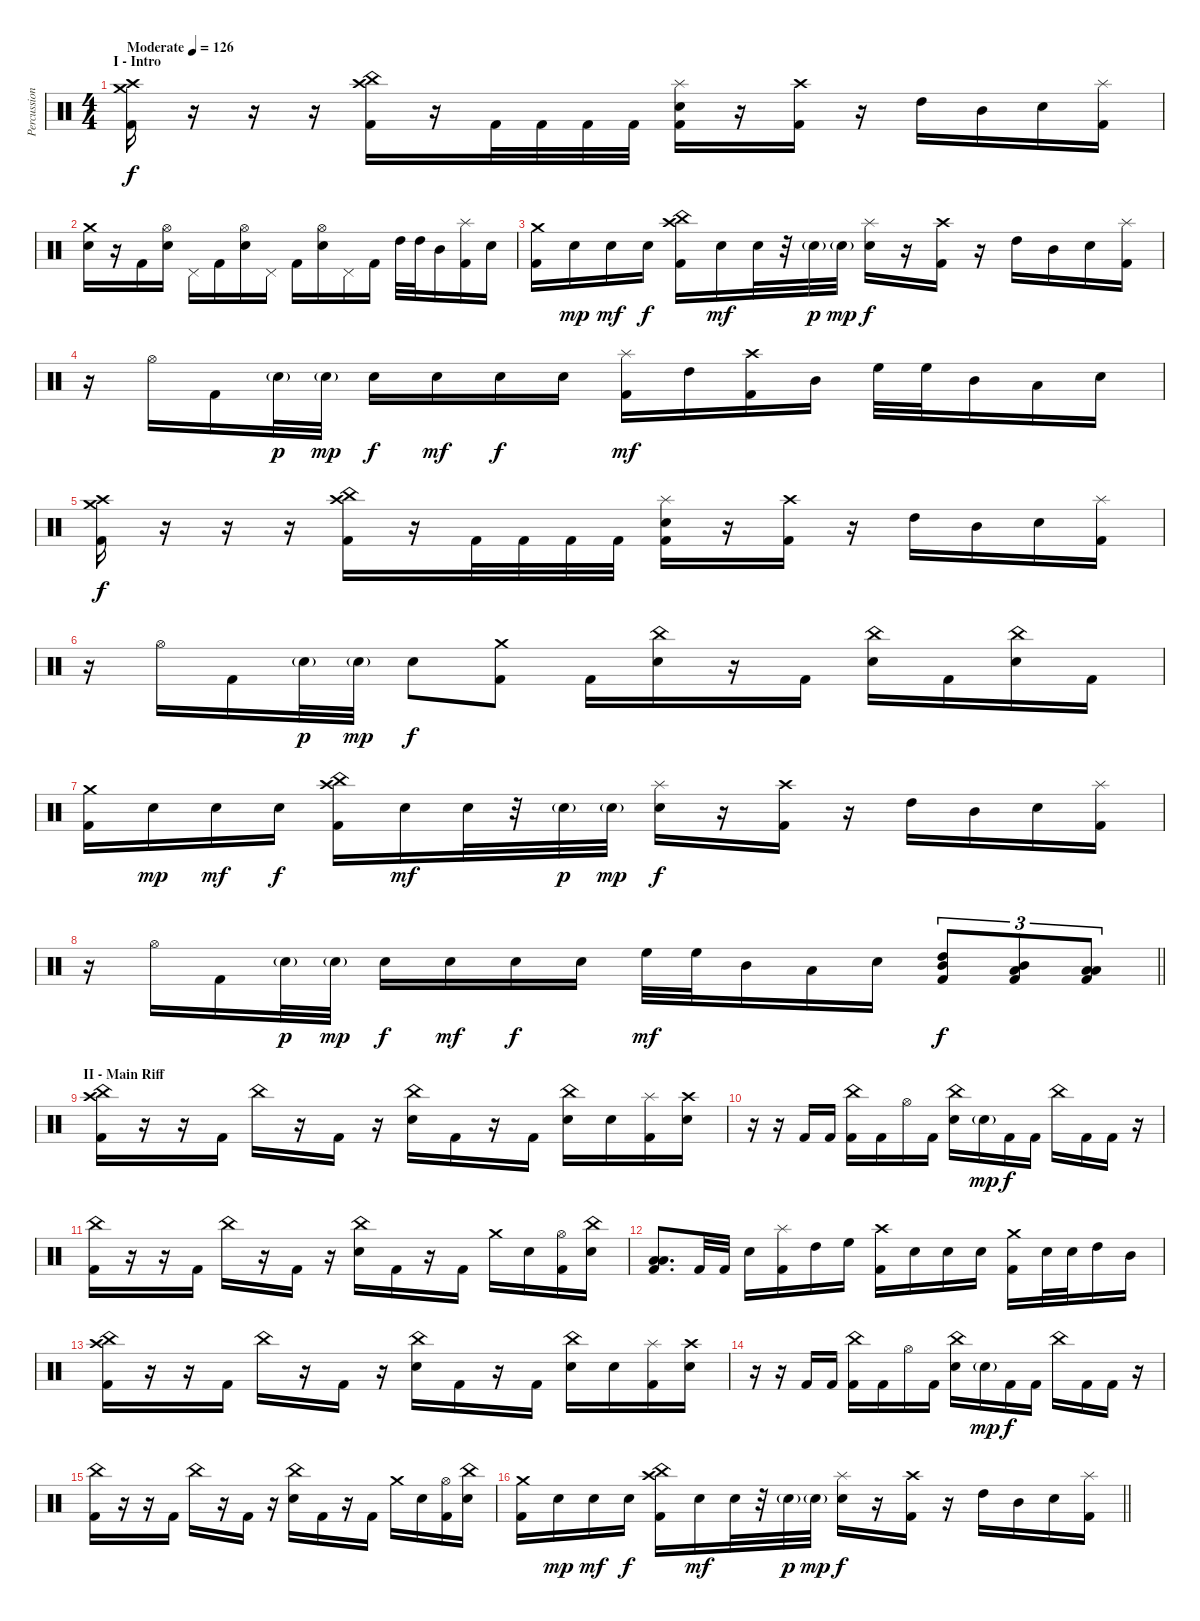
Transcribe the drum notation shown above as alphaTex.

\track ("Percussion" "Percussion") {instrument percussion}
\staff {score}
\articulation defaults
\ts (4 4)
\section ("" "I - Intro")
\tempo (126 "Moderate")
\clef neutral
\ks c
("Crash medium (hit)" "Crash high (hit)" "Kick (hit) 2").16{dy f} r.16 r.16 r.16 ("China (hit)" "Crash high (hit)" "Kick (hit) 2").16 r.16 "Kick (hit) 2".32 "Kick (hit) 2".32 "Kick (hit) 2".32 "Kick (hit) 2".32 ("Splash (hit)" "Snare (hit) 2" "Kick (hit) 2").16 r.16 ("Crash high (hit)" "Kick (hit) 2").16 r.16 "High Tom (hit)".16 "Mid Tom (hit)".16 "Snare (hit) 2".16 ("Splash (hit)" "Kick (hit) 2").16 |
("Crash medium (hit)" "Electric Snare (hit)").16 r.16 "Kick (hit) 2".16 ("Hi-Hat (open)" "Electric Snare (hit)").16 "Pedal Hi-Hat (hit)".16 "Kick (hit) 2".16 ("Hi-Hat (open)" "Electric Snare (hit)").16 "Pedal Hi-Hat (hit)".16 "Kick (hit) 2".16 ("Hi-Hat (open)" "Electric Snare (hit)").16 "Pedal Hi-Hat (hit)".16 "Kick (hit) 2".16 "High Tom (hit)".32 "High Tom (hit)".32 "Mid Tom (hit)".16 ("Splash (hit)" "Kick (hit) 2").16 "Electric Snare (hit)".16 |
("Crash medium (hit)" "Kick (hit) 2").16 "Snare (hit) 2".16{dy mp} "Snare (hit) 2".16{dy mf} "Snare (hit) 2".16{dy f} ("China (hit)" "Crash high (hit)" "Kick (hit) 2").16 "Snare (hit) 2".16{dy mf} "Snare (hit) 2".32 r.32 "Snare (hit) 2"{g}.32{dy p} "Snare (hit) 2"{g}.32{dy mp} ("Splash (hit)" "Snare (hit) 2").16{dy f} r.16 ("Crash high (hit)" "Kick (hit) 2").16 r.16 "High Tom (hit)".16 "Mid Tom (hit)".16 "Snare (hit) 2".16 ("Splash (hit)" "Kick (hit) 2").16 |
r.16 "Hi-Hat (open)".16 "Kick (hit) 2".16 "Snare (hit) 2"{g}.32{dy p} "Snare (hit) 2"{g}.32{dy mp} "Snare (hit) 2".16{dy f} "Snare (hit) 2".16{dy mf} "Snare (hit) 2".16{dy f} "Snare (hit) 2".16 ("Splash (hit)" "Kick (hit) 2").16{dy mf} "High Tom (hit)".16 ("Crash high (hit)" "Kick (hit) 2").16 "Mid Tom (hit)".16 "High Floor Tom (hit)".32 "High Floor Tom (hit)".32 "Mid Tom (hit)".16 "Low Tom (hit)".16 "Snare (hit) 2".16 |
("Crash medium (hit)" "Crash high (hit)" "Kick (hit) 2").16{dy f} r.16 r.16 r.16 ("China (hit)" "Crash high (hit)" "Kick (hit) 2").16 r.16 "Kick (hit) 2".32 "Kick (hit) 2".32 "Kick (hit) 2".32 "Kick (hit) 2".32 ("Splash (hit)" "Snare (hit) 2" "Kick (hit) 2").16 r.16 ("Crash high (hit)" "Kick (hit) 2").16 r.16 "High Tom (hit)".16 "Mid Tom (hit)".16 "Snare (hit) 2".16 ("Splash (hit)" "Kick (hit) 2").16 |
r.16 "Hi-Hat (open)".16 "Kick (hit) 2".16 "Snare (hit) 2"{g}.32{dy p} "Snare (hit) 2"{g}.32{dy mp} "Snare (hit) 2".8{dy f} ("Crash medium (hit)" "Kick (hit) 2").8 "Kick (hit) 2".16 ("China (hit)" "Snare (hit) 2").16 r.16 "Kick (hit) 2".16 ("China (hit)" "Snare (hit) 2").16 "Kick (hit) 2".16 ("China (hit)" "Snare (hit) 2").16 "Kick (hit) 2".16 |
("Crash medium (hit)" "Kick (hit) 2").16 "Snare (hit) 2".16{dy mp} "Snare (hit) 2".16{dy mf} "Snare (hit) 2".16{dy f} ("China (hit)" "Crash high (hit)" "Kick (hit) 2").16 "Snare (hit) 2".16{dy mf} "Snare (hit) 2".32 r.32 "Snare (hit) 2"{g}.32{dy p} "Snare (hit) 2"{g}.32{dy mp} ("Splash (hit)" "Snare (hit) 2").16{dy f} r.16 ("Crash high (hit)" "Kick (hit) 2").16 r.16 "High Tom (hit)".16 "Mid Tom (hit)".16 "Snare (hit) 2".16 ("Splash (hit)" "Kick (hit) 2").16 |
\barLineRight lightlight
r.16 "Hi-Hat (open)".16 "Kick (hit) 2".16 "Snare (hit) 2"{g}.32{dy p} "Snare (hit) 2"{g}.32{dy mp} "Snare (hit) 2".16{dy f} "Snare (hit) 2".16{dy mf} "Snare (hit) 2".16{dy f} "Snare (hit) 2".16 "High Floor Tom (hit)".32{dy mf} "High Floor Tom (hit)".32 "Mid Tom (hit)".16 "Low Tom (hit)".16 "Snare (hit) 2".16 ("Mid Tom (hit)" "High Tom (hit)" "Kick (hit) 2").8{tu (3 2) dy f} ("Mid Tom (hit)" "Low Tom (hit)" "Kick (hit) 2").8{tu (3 2)} ("Low Floor Tom (hit)" "Low Tom (hit)" "Kick (hit) 2").8{tu (3 2)} |
\section ("" "II - Main Riff")
("China (hit)" "Crash high (hit)" "Kick (hit) 2").16 r.16 r.16 "Kick (hit) 2".16 "China (hit)".16 r.16 "Kick (hit) 2".16 r.16 ("China (hit)" "Snare (hit) 2").16 "Kick (hit) 2".16 r.16 "Kick (hit) 2".16 ("China (hit)" "Snare (hit) 2").16 "Snare (hit) 2".16 ("Splash (hit)" "Kick (hit) 2").16 ("Crash high (hit)" "Snare (hit) 2").16 |
r.16 r.16 "Kick (hit) 2".16 "Kick (hit) 2".16 ("China (hit)" "Kick (hit) 2").16 "Kick (hit) 2".16 "Hi-Hat (open)".16 "Kick (hit) 2".16 ("China (hit)" "Snare (hit) 2").16 "Snare (hit) 2"{g}.16{dy mp} "Kick (hit) 2".16{dy f} "Kick (hit) 2".16 "China (hit)".16 "Kick (hit) 2".16 "Kick (hit) 2".16 r.16 |
("China (hit)" "Kick (hit) 2").16 r.16 r.16 "Kick (hit) 2".16 "China (hit)".16 r.16 "Kick (hit) 2".16 r.16 ("China (hit)" "Snare (hit) 2").16 "Kick (hit) 2".16 r.16 "Kick (hit) 2".16 "Crash medium (hit)".16 "Snare (hit) 2".16 ("Hi-Hat (open)" "Kick (hit) 2").16 ("China (hit)" "Snare (hit) 2").16 |
("Low Tom (hit)" "Low Floor Tom (hit)" "Kick (hit) 2").8{d} "Kick (hit) 2".32 "Kick (hit) 2".32 "Snare (hit) 2".16 ("Splash (hit)" "Kick (hit) 2").16 "High Tom (hit)".16 "High Floor Tom (hit)".16 ("Crash high (hit)" "Kick (hit) 2").16 "Snare (hit) 2".16 "Snare (hit) 2".16 "Snare (hit) 2".16 ("Crash medium (hit)" "Kick (hit) 2").16 "Snare (hit) 2".32 "Snare (hit) 2".32 "High Tom (hit)".16 "Mid Tom (hit)".16 |
("China (hit)" "Crash high (hit)" "Kick (hit) 2").16 r.16 r.16 "Kick (hit) 2".16 "China (hit)".16 r.16 "Kick (hit) 2".16 r.16 ("China (hit)" "Snare (hit) 2").16 "Kick (hit) 2".16 r.16 "Kick (hit) 2".16 ("China (hit)" "Snare (hit) 2").16 "Snare (hit) 2".16 ("Splash (hit)" "Kick (hit) 2").16 ("Crash high (hit)" "Snare (hit) 2").16 |
r.16 r.16 "Kick (hit) 2".16 "Kick (hit) 2".16 ("China (hit)" "Kick (hit) 2").16 "Kick (hit) 2".16 "Hi-Hat (open)".16 "Kick (hit) 2".16 ("China (hit)" "Snare (hit) 2").16 "Snare (hit) 2"{g}.16{dy mp} "Kick (hit) 2".16{dy f} "Kick (hit) 2".16 "China (hit)".16 "Kick (hit) 2".16 "Kick (hit) 2".16 r.16 |
("China (hit)" "Kick (hit) 2").16 r.16 r.16 "Kick (hit) 2".16 "China (hit)".16 r.16 "Kick (hit) 2".16 r.16 ("China (hit)" "Snare (hit) 2").16 "Kick (hit) 2".16 r.16 "Kick (hit) 2".16 "Crash medium (hit)".16 "Snare (hit) 2".16 ("Hi-Hat (open)" "Kick (hit) 2").16 ("China (hit)" "Snare (hit) 2").16 |
\barLineRight lightlight
("Crash medium (hit)" "Kick (hit) 2").16 "Snare (hit) 2".16{dy mp} "Snare (hit) 2".16{dy mf} "Snare (hit) 2".16{dy f} ("China (hit)" "Crash high (hit)" "Kick (hit) 2").16 "Snare (hit) 2".16{dy mf} "Snare (hit) 2".32 r.32 "Snare (hit) 2"{g}.32{dy p} "Snare (hit) 2"{g}.32{dy mp} ("Splash (hit)" "Snare (hit) 2").16{dy f} r.16 ("Crash high (hit)" "Kick (hit) 2").16 r.16 "High Tom (hit)".16 "Mid Tom (hit)".16 "Snare (hit) 2".16 ("Splash (hit)" "Kick (hit) 2").16
